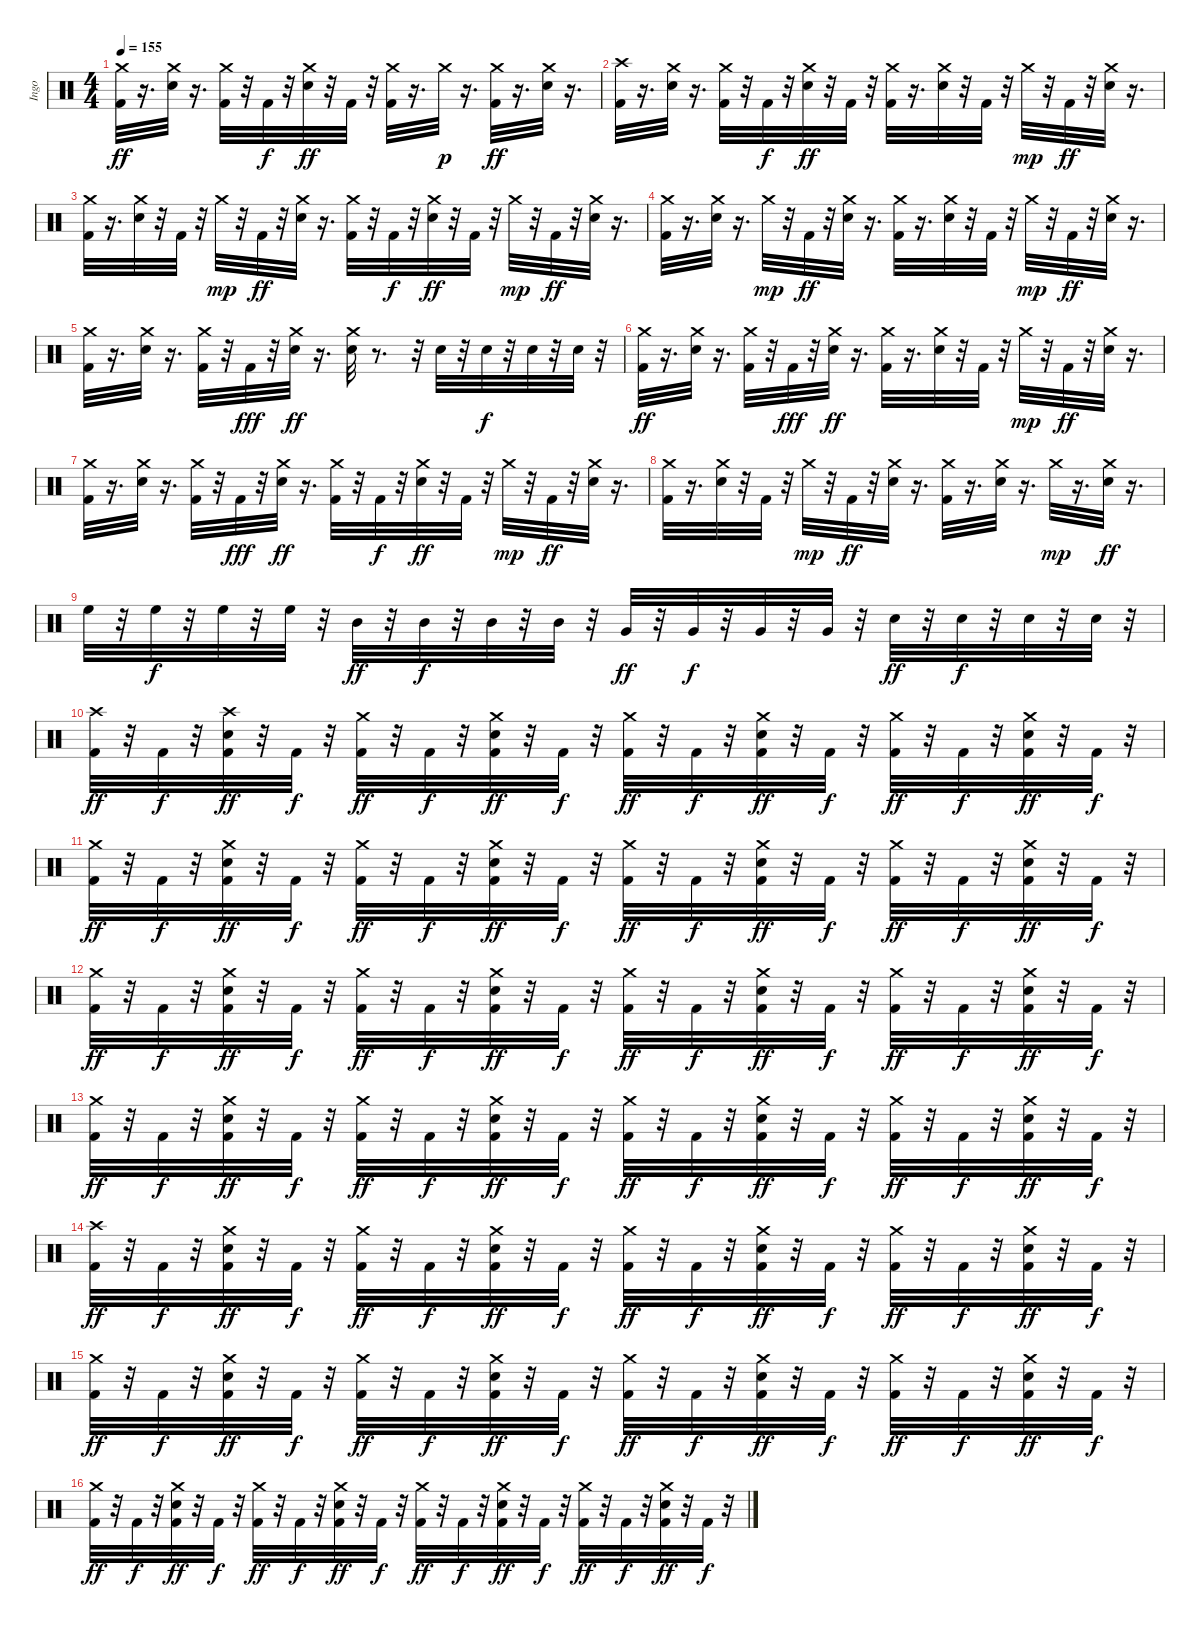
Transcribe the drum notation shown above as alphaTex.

\track ("Ingo" "Ingo") {instrument percussion}
\staff {score}
\articulation defaults
\ts (4 4)
\tempo 155
\clef neutral
\ks c
("Crash medium (hit)" "Kick (hit) 2").32{dy ff} r.16{d} ("Crash medium (hit)" "Snare (hit) 2").32 r.16{d} ("Crash medium (hit)" "Kick (hit) 2").32 r.32 "Kick (hit) 2".32{dy f} r.32 ("Crash medium (hit)" "Snare (hit) 2").32{dy ff} r.32 "Kick (hit) 2".32 r.32 ("Crash medium (hit)" "Kick (hit) 2").32 r.16{d} "Crash medium (hit)".32{dy p} r.16{d} ("Crash medium (hit)" "Kick (hit) 2").32{dy ff} r.16{d} ("Crash medium (hit)" "Snare (hit) 2").32 r.16{d} |
("Crash high (hit)" "Kick (hit) 2").32 r.16{d} ("Crash medium (hit)" "Snare (hit) 2").32 r.16{d} ("Crash medium (hit)" "Kick (hit) 2").32 r.32 "Kick (hit) 2".32{dy f} r.32 ("Crash medium (hit)" "Snare (hit) 2").32{dy ff} r.32 "Kick (hit) 2".32 r.32 ("Crash medium (hit)" "Kick (hit) 2").32 r.16{d} ("Crash medium (hit)" "Snare (hit) 2").32 r.32 "Kick (hit) 2".32 r.32 "Crash medium (hit)".32{dy mp} r.32 "Kick (hit) 2".32{dy ff} r.32 ("Crash medium (hit)" "Snare (hit) 2").32 r.16{d} |
("Crash medium (hit)" "Kick (hit) 2").32 r.16{d} ("Crash medium (hit)" "Snare (hit) 2").32 r.32 "Kick (hit) 2".32 r.32 "Crash medium (hit)".32{dy mp} r.32 "Kick (hit) 2".32{dy ff} r.32 ("Crash medium (hit)" "Snare (hit) 2").32 r.16{d} ("Crash medium (hit)" "Kick (hit) 2").32 r.32 "Kick (hit) 2".32{dy f} r.32 ("Crash medium (hit)" "Snare (hit) 2").32{dy ff} r.32 "Kick (hit) 2".32 r.32 "Crash medium (hit)".32{dy mp} r.32 "Kick (hit) 2".32{dy ff} r.32 ("Crash medium (hit)" "Snare (hit) 2").32 r.16{d} |
("Crash medium (hit)" "Kick (hit) 2").32 r.16{d} ("Crash medium (hit)" "Snare (hit) 2").32 r.16{d} "Crash medium (hit)".32{dy mp} r.32 "Kick (hit) 2".32{dy ff} r.32 ("Crash medium (hit)" "Snare (hit) 2").32 r.16{d} ("Crash medium (hit)" "Kick (hit) 2").32 r.16{d} ("Crash medium (hit)" "Snare (hit) 2").32 r.32 "Kick (hit) 2".32 r.32 "Crash medium (hit)".32{dy mp} r.32 "Kick (hit) 2".32{dy ff} r.32 ("Crash medium (hit)" "Snare (hit) 2").32 r.16{d} |
("Crash medium (hit)" "Kick (hit) 2").32 r.16{d} ("Crash medium (hit)" "Snare (hit) 2").32 r.16{d} ("Crash medium (hit)" "Kick (hit) 2").32 r.32 "Kick (hit) 2".32{dy fff} r.32 ("Crash medium (hit)" "Snare (hit) 2").32{dy ff} r.16{d} ("Crash medium (hit)" "Snare (hit) 2").32 r.8{d} r.32 "Snare (hit) 2".32 r.32 "Snare (hit) 2".32{dy f} r.32 "Snare (hit) 2".32 r.32 "Snare (hit) 2".32 r.32 |
("Crash medium (hit)" "Kick (hit) 2").32{dy ff} r.16{d} ("Crash medium (hit)" "Snare (hit) 2").32 r.16{d} ("Crash medium (hit)" "Kick (hit) 2").32 r.32 "Kick (hit) 2".32{dy fff} r.32 ("Crash medium (hit)" "Snare (hit) 2").32{dy ff} r.16{d} ("Crash medium (hit)" "Kick (hit) 2").32 r.16{d} ("Crash medium (hit)" "Snare (hit) 2").32 r.32 "Kick (hit) 2".32 r.32 "Crash medium (hit)".32{dy mp} r.32 "Kick (hit) 2".32{dy ff} r.32 ("Crash medium (hit)" "Snare (hit) 2").32 r.16{d} |
("Crash medium (hit)" "Kick (hit) 2").32 r.16{d} ("Crash medium (hit)" "Snare (hit) 2").32 r.16{d} ("Crash medium (hit)" "Kick (hit) 2").32 r.32 "Kick (hit) 2".32{dy fff} r.32 ("Crash medium (hit)" "Snare (hit) 2").32{dy ff} r.16{d} ("Crash medium (hit)" "Kick (hit) 2").32 r.32 "Kick (hit) 2".32{dy f} r.32 ("Crash medium (hit)" "Snare (hit) 2").32{dy ff} r.32 "Kick (hit) 2".32 r.32 "Crash medium (hit)".32{dy mp} r.32 "Kick (hit) 2".32{dy ff} r.32 ("Crash medium (hit)" "Snare (hit) 2").32 r.16{d} |
("Crash medium (hit)" "Kick (hit) 2").32 r.16{d} ("Crash medium (hit)" "Snare (hit) 2").32 r.32 "Kick (hit) 2".32 r.32 "Crash medium (hit)".32{dy mp} r.32 "Kick (hit) 2".32{dy ff} r.32 ("Crash medium (hit)" "Snare (hit) 2").32 r.16{d} ("Crash medium (hit)" "Kick (hit) 2").32 r.16{d} ("Crash medium (hit)" "Snare (hit) 2").32 r.16{d} "Crash medium (hit)".32{dy mp} r.16{d} ("Crash medium (hit)" "Snare (hit) 2").32{dy ff} r.16{d} |
"High Floor Tom (hit)".32 r.32 "High Floor Tom (hit)".32{dy f} r.32 "High Floor Tom (hit)".32 r.32 "High Floor Tom (hit)".32 r.32 "Mid Tom (hit)".32{dy ff} r.32 "Mid Tom (hit)".32{dy f} r.32 "Mid Tom (hit)".32 r.32 "Mid Tom (hit)".32 r.32 "Very Low Tom (hit)".32{dy ff} r.32 "Very Low Tom (hit)".32{dy f} r.32 "Very Low Tom (hit)".32 r.32 "Very Low Tom (hit)".32 r.32 "Snare (hit)".32{dy ff} r.32 "Snare (hit)".32{dy f} r.32 "Snare (hit)".32 r.32 "Snare (hit)".32 r.32 |
("Crash high (hit)" "Kick (hit) 2").32{dy ff} r.32 "Kick (hit) 2".32{dy f} r.32 ("Kick (hit) 2" "Crash high (hit)" "Snare (hit) 2").32{dy ff} r.32 "Kick (hit) 2".32{dy f} r.32 ("Crash medium (hit)" "Kick (hit) 2").32{dy ff} r.32 "Kick (hit) 2".32{dy f} r.32 ("Kick (hit) 2" "Crash medium (hit)" "Snare (hit) 2").32{dy ff} r.32 "Kick (hit) 2".32{dy f} r.32 ("Crash medium (hit)" "Kick (hit) 2").32{dy ff} r.32 "Kick (hit) 2".32{dy f} r.32 ("Kick (hit) 2" "Crash medium (hit)" "Snare (hit) 2").32{dy ff} r.32 "Kick (hit) 2".32{dy f} r.32 ("Crash medium (hit)" "Kick (hit) 2").32{dy ff} r.32 "Kick (hit) 2".32{dy f} r.32 ("Kick (hit) 2" "Crash medium (hit)" "Snare (hit) 2").32{dy ff} r.32 "Kick (hit) 2".32{dy f} r.32 |
("Crash medium (hit)" "Kick (hit) 2").32{dy ff} r.32 "Kick (hit) 2".32{dy f} r.32 ("Kick (hit) 2" "Crash medium (hit)" "Snare (hit) 2").32{dy ff} r.32 "Kick (hit) 2".32{dy f} r.32 ("Crash medium (hit)" "Kick (hit) 2").32{dy ff} r.32 "Kick (hit) 2".32{dy f} r.32 ("Kick (hit) 2" "Crash medium (hit)" "Snare (hit) 2").32{dy ff} r.32 "Kick (hit) 2".32{dy f} r.32 ("Crash medium (hit)" "Kick (hit) 2").32{dy ff} r.32 "Kick (hit) 2".32{dy f} r.32 ("Kick (hit) 2" "Crash medium (hit)" "Snare (hit) 2").32{dy ff} r.32 "Kick (hit) 2".32{dy f} r.32 ("Crash medium (hit)" "Kick (hit) 2").32{dy ff} r.32 "Kick (hit) 2".32{dy f} r.32 ("Kick (hit) 2" "Crash medium (hit)" "Snare (hit) 2").32{dy ff} r.32 "Kick (hit) 2".32{dy f} r.32 |
("Crash medium (hit)" "Kick (hit) 2").32{dy ff} r.32 "Kick (hit) 2".32{dy f} r.32 ("Kick (hit) 2" "Crash medium (hit)" "Snare (hit) 2").32{dy ff} r.32 "Kick (hit) 2".32{dy f} r.32 ("Crash medium (hit)" "Kick (hit) 2").32{dy ff} r.32 "Kick (hit) 2".32{dy f} r.32 ("Kick (hit) 2" "Crash medium (hit)" "Snare (hit) 2").32{dy ff} r.32 "Kick (hit) 2".32{dy f} r.32 ("Crash medium (hit)" "Kick (hit) 2").32{dy ff} r.32 "Kick (hit) 2".32{dy f} r.32 ("Kick (hit) 2" "Crash medium (hit)" "Snare (hit) 2").32{dy ff} r.32 "Kick (hit) 2".32{dy f} r.32 ("Crash medium (hit)" "Kick (hit) 2").32{dy ff} r.32 "Kick (hit) 2".32{dy f} r.32 ("Kick (hit) 2" "Crash medium (hit)" "Snare (hit) 2").32{dy ff} r.32 "Kick (hit) 2".32{dy f} r.32 |
("Crash medium (hit)" "Kick (hit) 2").32{dy ff} r.32 "Kick (hit) 2".32{dy f} r.32 ("Kick (hit) 2" "Crash medium (hit)" "Snare (hit) 2").32{dy ff} r.32 "Kick (hit) 2".32{dy f} r.32 ("Crash medium (hit)" "Kick (hit) 2").32{dy ff} r.32 "Kick (hit) 2".32{dy f} r.32 ("Kick (hit) 2" "Crash medium (hit)" "Snare (hit) 2").32{dy ff} r.32 "Kick (hit) 2".32{dy f} r.32 ("Crash medium (hit)" "Kick (hit) 2").32{dy ff} r.32 "Kick (hit) 2".32{dy f} r.32 ("Kick (hit) 2" "Crash medium (hit)" "Snare (hit) 2").32{dy ff} r.32 "Kick (hit) 2".32{dy f} r.32 ("Crash medium (hit)" "Kick (hit) 2").32{dy ff} r.32 "Kick (hit) 2".32{dy f} r.32 ("Kick (hit) 2" "Crash medium (hit)" "Snare (hit) 2").32{dy ff} r.32 "Kick (hit) 2".32{dy f} r.32 |
("Crash high (hit)" "Kick (hit) 2").32{dy ff} r.32 "Kick (hit) 2".32{dy f} r.32 ("Kick (hit) 2" "Crash medium (hit)" "Snare (hit) 2").32{dy ff} r.32 "Kick (hit) 2".32{dy f} r.32 ("Crash medium (hit)" "Kick (hit) 2").32{dy ff} r.32 "Kick (hit) 2".32{dy f} r.32 ("Kick (hit) 2" "Crash medium (hit)" "Snare (hit) 2").32{dy ff} r.32 "Kick (hit) 2".32{dy f} r.32 ("Crash medium (hit)" "Kick (hit) 2").32{dy ff} r.32 "Kick (hit) 2".32{dy f} r.32 ("Kick (hit) 2" "Crash medium (hit)" "Snare (hit) 2").32{dy ff} r.32 "Kick (hit) 2".32{dy f} r.32 ("Crash medium (hit)" "Kick (hit) 2").32{dy ff} r.32 "Kick (hit) 2".32{dy f} r.32 ("Kick (hit) 2" "Crash medium (hit)" "Snare (hit) 2").32{dy ff} r.32 "Kick (hit) 2".32{dy f} r.32 |
("Crash medium (hit)" "Kick (hit) 2").32{dy ff} r.32 "Kick (hit) 2".32{dy f} r.32 ("Kick (hit) 2" "Crash medium (hit)" "Snare (hit) 2").32{dy ff} r.32 "Kick (hit) 2".32{dy f} r.32 ("Crash medium (hit)" "Kick (hit) 2").32{dy ff} r.32 "Kick (hit) 2".32{dy f} r.32 ("Kick (hit) 2" "Crash medium (hit)" "Snare (hit) 2").32{dy ff} r.32 "Kick (hit) 2".32{dy f} r.32 ("Crash medium (hit)" "Kick (hit) 2").32{dy ff} r.32 "Kick (hit) 2".32{dy f} r.32 ("Kick (hit) 2" "Crash medium (hit)" "Snare (hit) 2").32{dy ff} r.32 "Kick (hit) 2".32{dy f} r.32 ("Crash medium (hit)" "Kick (hit) 2").32{dy ff} r.32 "Kick (hit) 2".32{dy f} r.32 ("Kick (hit) 2" "Crash medium (hit)" "Snare (hit) 2").32{dy ff} r.32 "Kick (hit) 2".32{dy f} r.32 |
("Crash medium (hit)" "Kick (hit) 2").32{dy ff} r.32 "Kick (hit) 2".32{dy f} r.32 ("Kick (hit) 2" "Crash medium (hit)" "Snare (hit) 2").32{dy ff} r.32 "Kick (hit) 2".32{dy f} r.32 ("Crash medium (hit)" "Kick (hit) 2").32{dy ff} r.32 "Kick (hit) 2".32{dy f} r.32 ("Kick (hit) 2" "Crash medium (hit)" "Snare (hit) 2").32{dy ff} r.32 "Kick (hit) 2".32{dy f} r.32 ("Crash medium (hit)" "Kick (hit) 2").32{dy ff} r.32 "Kick (hit) 2".32{dy f} r.32 ("Kick (hit) 2" "Crash medium (hit)" "Snare (hit) 2").32{dy ff} r.32 "Kick (hit) 2".32{dy f} r.32 ("Crash medium (hit)" "Kick (hit) 2").32{dy ff} r.32 "Kick (hit) 2".32{dy f} r.32 ("Kick (hit) 2" "Crash medium (hit)" "Snare (hit) 2").32{dy ff} r.32 "Kick (hit) 2".32{dy f} r.32
